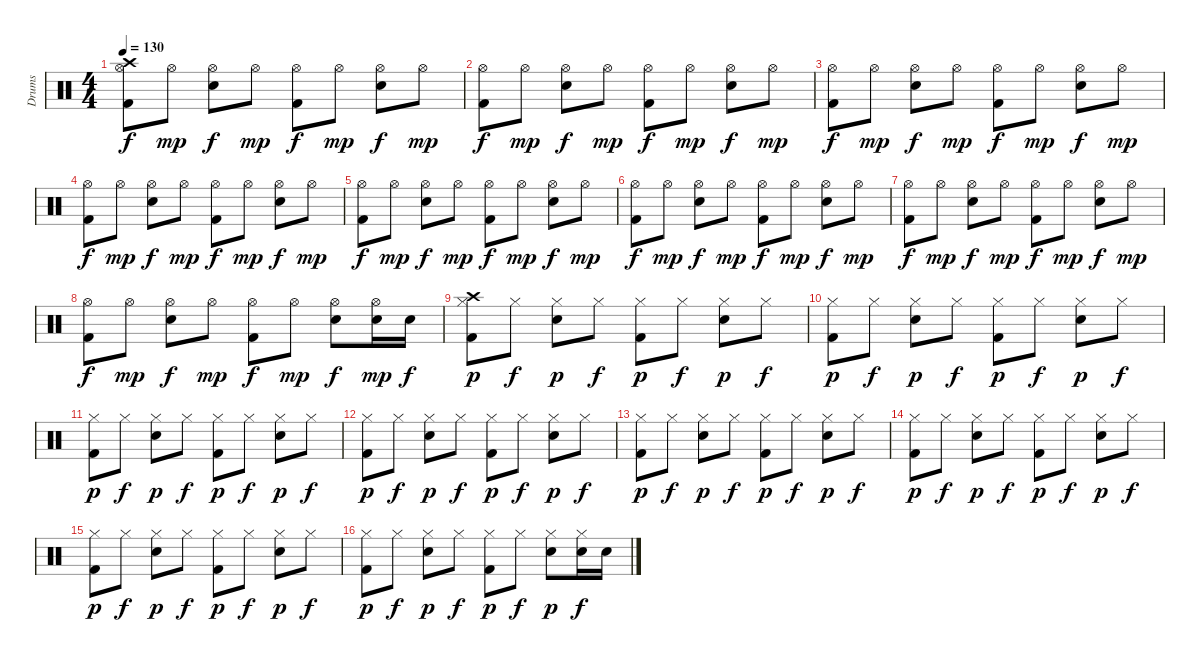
\track ("Drums" "Drums") {instrument percussion}
\staff {score}
\articulation defaults
\ts (4 4)
\tempo 130
\clef neutral
\ks c
("Crash high (hit)" "Hi-Hat (open)" "Kick (hit) 2").8{dy f} "Hi-Hat (open)".8{dy mp} ("Hi-Hat (open)" "Electric Snare (hit)").8{dy f} "Hi-Hat (open)".8{dy mp} ("Hi-Hat (open)" "Kick (hit) 2").8{dy f} "Hi-Hat (open)".8{dy mp} ("Hi-Hat (open)" "Electric Snare (hit)").8{dy f} "Hi-Hat (open)".8{dy mp} |
("Hi-Hat (open)" "Kick (hit) 2").8{dy f} "Hi-Hat (open)".8{dy mp} ("Hi-Hat (open)" "Electric Snare (hit)").8{dy f} "Hi-Hat (open)".8{dy mp} ("Hi-Hat (open)" "Kick (hit) 2").8{dy f} "Hi-Hat (open)".8{dy mp} ("Hi-Hat (open)" "Electric Snare (hit)").8{dy f} "Hi-Hat (open)".8{dy mp} |
("Hi-Hat (open)" "Kick (hit) 2").8{dy f} "Hi-Hat (open)".8{dy mp} ("Hi-Hat (open)" "Electric Snare (hit)").8{dy f} "Hi-Hat (open)".8{dy mp} ("Hi-Hat (open)" "Kick (hit) 2").8{dy f} "Hi-Hat (open)".8{dy mp} ("Hi-Hat (open)" "Electric Snare (hit)").8{dy f} "Hi-Hat (open)".8{dy mp} |
("Hi-Hat (open)" "Kick (hit) 2").8{dy f} "Hi-Hat (open)".8{dy mp} ("Hi-Hat (open)" "Electric Snare (hit)").8{dy f} "Hi-Hat (open)".8{dy mp} ("Hi-Hat (open)" "Kick (hit) 2").8{dy f} "Hi-Hat (open)".8{dy mp} ("Hi-Hat (open)" "Electric Snare (hit)").8{dy f} "Hi-Hat (open)".8{dy mp} |
("Hi-Hat (open)" "Kick (hit) 2").8{dy f} "Hi-Hat (open)".8{dy mp} ("Hi-Hat (open)" "Electric Snare (hit)").8{dy f} "Hi-Hat (open)".8{dy mp} ("Hi-Hat (open)" "Kick (hit) 2").8{dy f} "Hi-Hat (open)".8{dy mp} ("Hi-Hat (open)" "Electric Snare (hit)").8{dy f} "Hi-Hat (open)".8{dy mp} |
("Hi-Hat (open)" "Kick (hit) 2").8{dy f} "Hi-Hat (open)".8{dy mp} ("Hi-Hat (open)" "Electric Snare (hit)").8{dy f} "Hi-Hat (open)".8{dy mp} ("Hi-Hat (open)" "Kick (hit) 2").8{dy f} "Hi-Hat (open)".8{dy mp} ("Hi-Hat (open)" "Electric Snare (hit)").8{dy f} "Hi-Hat (open)".8{dy mp} |
("Hi-Hat (open)" "Kick (hit) 2").8{dy f} "Hi-Hat (open)".8{dy mp} ("Hi-Hat (open)" "Electric Snare (hit)").8{dy f} "Hi-Hat (open)".8{dy mp} ("Hi-Hat (open)" "Kick (hit) 2").8{dy f} "Hi-Hat (open)".8{dy mp} ("Hi-Hat (open)" "Electric Snare (hit)").8{dy f} "Hi-Hat (open)".8{dy mp} |
("Hi-Hat (open)" "Kick (hit) 2").8{dy f} "Hi-Hat (open)".8{dy mp} ("Hi-Hat (open)" "Electric Snare (hit)").8{dy f} "Hi-Hat (open)".8{dy mp} ("Hi-Hat (open)" "Kick (hit) 2").8{dy f} "Hi-Hat (open)".8{dy mp} ("Hi-Hat (open)" "Electric Snare (hit)").8{dy f} ("Hi-Hat (open)" "Electric Snare (hit)").16{dy mp} "Electric Snare (hit)".16{dy f} |
("Crash high (hit)" "Hi-Hat (closed)" "Kick (hit) 2").8{dy p} "Hi-Hat (closed)".8{dy f} ("Hi-Hat (closed)" "Electric Snare (hit)").8{dy p} "Hi-Hat (closed)".8{dy f} ("Hi-Hat (closed)" "Kick (hit) 2").8{dy p} "Hi-Hat (closed)".8{dy f} ("Hi-Hat (closed)" "Electric Snare (hit)").8{dy p} "Hi-Hat (closed)".8{dy f} |
("Hi-Hat (closed)" "Kick (hit) 2").8{dy p} "Hi-Hat (closed)".8{dy f} ("Hi-Hat (closed)" "Electric Snare (hit)").8{dy p} "Hi-Hat (closed)".8{dy f} ("Hi-Hat (closed)" "Kick (hit) 2").8{dy p} "Hi-Hat (closed)".8{dy f} ("Hi-Hat (closed)" "Electric Snare (hit)").8{dy p} "Hi-Hat (closed)".8{dy f} |
("Hi-Hat (closed)" "Kick (hit) 2").8{dy p} "Hi-Hat (closed)".8{dy f} ("Hi-Hat (closed)" "Electric Snare (hit)").8{dy p} "Hi-Hat (closed)".8{dy f} ("Hi-Hat (closed)" "Kick (hit) 2").8{dy p} "Hi-Hat (closed)".8{dy f} ("Hi-Hat (closed)" "Electric Snare (hit)").8{dy p} "Hi-Hat (closed)".8{dy f} |
("Hi-Hat (closed)" "Kick (hit) 2").8{dy p} "Hi-Hat (closed)".8{dy f} ("Hi-Hat (closed)" "Electric Snare (hit)").8{dy p} "Hi-Hat (closed)".8{dy f} ("Hi-Hat (closed)" "Kick (hit) 2").8{dy p} "Hi-Hat (closed)".8{dy f} ("Hi-Hat (closed)" "Electric Snare (hit)").8{dy p} "Hi-Hat (closed)".8{dy f} |
("Hi-Hat (closed)" "Kick (hit) 2").8{dy p} "Hi-Hat (closed)".8{dy f} ("Hi-Hat (closed)" "Electric Snare (hit)").8{dy p} "Hi-Hat (closed)".8{dy f} ("Hi-Hat (closed)" "Kick (hit) 2").8{dy p} "Hi-Hat (closed)".8{dy f} ("Hi-Hat (closed)" "Electric Snare (hit)").8{dy p} "Hi-Hat (closed)".8{dy f} |
("Hi-Hat (closed)" "Kick (hit) 2").8{dy p} "Hi-Hat (closed)".8{dy f} ("Hi-Hat (closed)" "Electric Snare (hit)").8{dy p} "Hi-Hat (closed)".8{dy f} ("Hi-Hat (closed)" "Kick (hit) 2").8{dy p} "Hi-Hat (closed)".8{dy f} ("Hi-Hat (closed)" "Electric Snare (hit)").8{dy p} "Hi-Hat (closed)".8{dy f} |
("Hi-Hat (closed)" "Kick (hit) 2").8{dy p} "Hi-Hat (closed)".8{dy f} ("Hi-Hat (closed)" "Electric Snare (hit)").8{dy p} "Hi-Hat (closed)".8{dy f} ("Hi-Hat (closed)" "Kick (hit) 2").8{dy p} "Hi-Hat (closed)".8{dy f} ("Hi-Hat (closed)" "Electric Snare (hit)").8{dy p} "Hi-Hat (closed)".8{dy f} |
("Hi-Hat (closed)" "Kick (hit) 2").8{dy p} "Hi-Hat (closed)".8{dy f} ("Hi-Hat (closed)" "Electric Snare (hit)").8{dy p} "Hi-Hat (closed)".8{dy f} ("Hi-Hat (closed)" "Kick (hit) 2").8{dy p} "Hi-Hat (closed)".8{dy f} ("Hi-Hat (closed)" "Electric Snare (hit)").8{dy p} ("Hi-Hat (closed)" "Electric Snare (hit)").16{dy f} "Electric Snare (hit)".16
